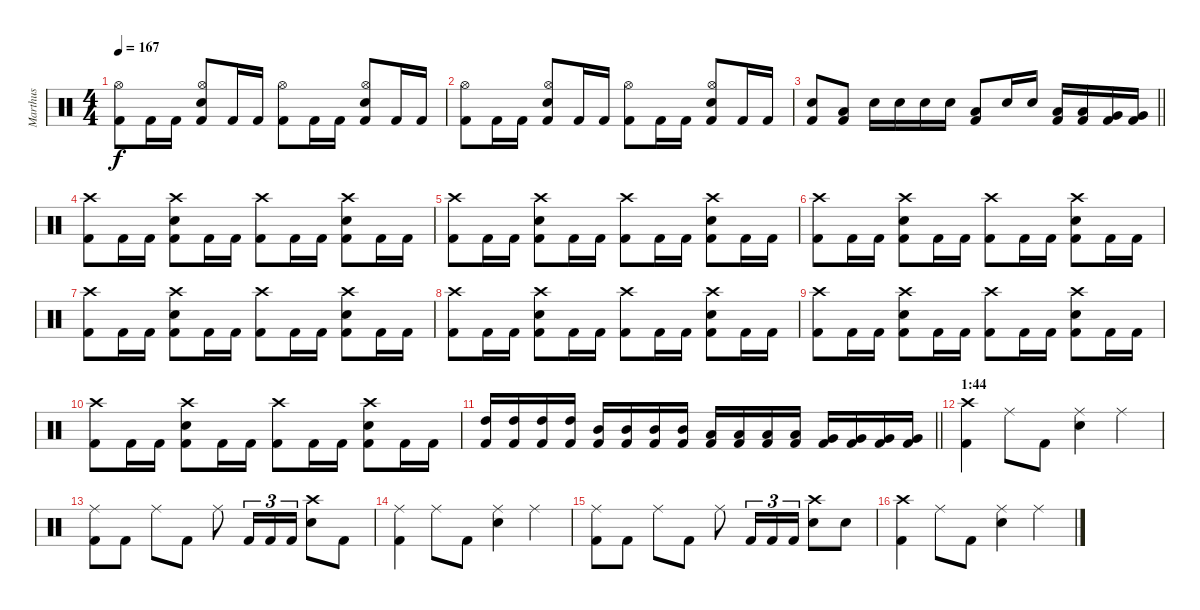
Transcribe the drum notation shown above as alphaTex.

\track ("Marthus" "Marthus") {instrument percussion}
\staff {score}
\articulation defaults
\ts (4 4)
\tempo 167
\clef neutral
\ks c
("Kick (hit) 2" "Hi-Hat (open)").8{dy f} "Kick (hit) 2".16 "Kick (hit) 2".16 ("Kick (hit) 2" "Snare (hit) 2" "Hi-Hat (open)").8 "Kick (hit) 2".16 "Kick (hit) 2".16 ("Kick (hit) 2" "Hi-Hat (open)").8 "Kick (hit) 2".16 "Kick (hit) 2".16 ("Kick (hit) 2" "Snare (hit) 2" "Hi-Hat (open)").8 "Kick (hit) 2".16 "Kick (hit) 2".16 |
("Kick (hit) 2" "Hi-Hat (open)").8 "Kick (hit) 2".16 "Kick (hit) 2".16 ("Kick (hit) 2" "Snare (hit) 2" "Hi-Hat (open)").8 "Kick (hit) 2".16 "Kick (hit) 2".16 ("Kick (hit) 2" "Hi-Hat (open)").8 "Kick (hit) 2".16 "Kick (hit) 2".16 ("Kick (hit) 2" "Snare (hit) 2" "Hi-Hat (open)").8 "Kick (hit) 2".16 "Kick (hit) 2".16 |
\barLineRight lightlight
("Kick (hit) 2" "Snare (hit) 2").8 ("Kick (hit) 2" "Low Tom (hit)").8 "Snare (hit) 2".16 "Snare (hit) 2".16 "Snare (hit) 2".16 "Snare (hit) 2".16 ("Kick (hit) 2" "Low Tom (hit)").8 "Snare (hit) 2".16 "Snare (hit) 2".16 ("Kick (hit) 2" "Low Tom (hit)").16 ("Kick (hit) 2" "Low Tom (hit)").16 ("Kick (hit) 2" "Very Low Tom (hit)").16 ("Kick (hit) 2" "Very Low Tom (hit)").16 |
("Kick (hit) 2" "Crash high (hit)").8 "Kick (hit) 2".16 "Kick (hit) 2".16 ("Kick (hit) 2" "Snare (hit) 2" "Crash high (hit)").8 "Kick (hit) 2".16 "Kick (hit) 2".16 ("Kick (hit) 2" "Crash high (hit)").8 "Kick (hit) 2".16 "Kick (hit) 2".16 ("Kick (hit) 2" "Snare (hit) 2" "Crash high (hit)").8 "Kick (hit) 2".16 "Kick (hit) 2".16 |
("Kick (hit) 2" "Crash high (hit)").8 "Kick (hit) 2".16 "Kick (hit) 2".16 ("Kick (hit) 2" "Snare (hit) 2" "Crash high (hit)").8 "Kick (hit) 2".16 "Kick (hit) 2".16 ("Kick (hit) 2" "Crash high (hit)").8 "Kick (hit) 2".16 "Kick (hit) 2".16 ("Kick (hit) 2" "Snare (hit) 2" "Crash high (hit)").8 "Kick (hit) 2".16 "Kick (hit) 2".16 |
("Kick (hit) 2" "Crash high (hit)").8 "Kick (hit) 2".16 "Kick (hit) 2".16 ("Kick (hit) 2" "Snare (hit) 2" "Crash high (hit)").8 "Kick (hit) 2".16 "Kick (hit) 2".16 ("Kick (hit) 2" "Crash high (hit)").8 "Kick (hit) 2".16 "Kick (hit) 2".16 ("Kick (hit) 2" "Snare (hit) 2" "Crash high (hit)").8 "Kick (hit) 2".16 "Kick (hit) 2".16 |
("Kick (hit) 2" "Crash high (hit)").8 "Kick (hit) 2".16 "Kick (hit) 2".16 ("Kick (hit) 2" "Snare (hit) 2" "Crash high (hit)").8 "Kick (hit) 2".16 "Kick (hit) 2".16 ("Kick (hit) 2" "Crash high (hit)").8 "Kick (hit) 2".16 "Kick (hit) 2".16 ("Kick (hit) 2" "Snare (hit) 2" "Crash high (hit)").8 "Kick (hit) 2".16 "Kick (hit) 2".16 |
("Kick (hit) 2" "Crash high (hit)").8 "Kick (hit) 2".16 "Kick (hit) 2".16 ("Kick (hit) 2" "Snare (hit) 2" "Crash high (hit)").8 "Kick (hit) 2".16 "Kick (hit) 2".16 ("Kick (hit) 2" "Crash high (hit)").8 "Kick (hit) 2".16 "Kick (hit) 2".16 ("Kick (hit) 2" "Snare (hit) 2" "Crash high (hit)").8 "Kick (hit) 2".16 "Kick (hit) 2".16 |
("Kick (hit) 2" "Crash high (hit)").8 "Kick (hit) 2".16 "Kick (hit) 2".16 ("Kick (hit) 2" "Snare (hit) 2" "Crash high (hit)").8 "Kick (hit) 2".16 "Kick (hit) 2".16 ("Kick (hit) 2" "Crash high (hit)").8 "Kick (hit) 2".16 "Kick (hit) 2".16 ("Kick (hit) 2" "Snare (hit) 2" "Crash high (hit)").8 "Kick (hit) 2".16 "Kick (hit) 2".16 |
("Kick (hit) 2" "Crash high (hit)").8 "Kick (hit) 2".16 "Kick (hit) 2".16 ("Kick (hit) 2" "Snare (hit) 2" "Crash high (hit)").8 "Kick (hit) 2".16 "Kick (hit) 2".16 ("Kick (hit) 2" "Crash high (hit)").8 "Kick (hit) 2".16 "Kick (hit) 2".16 ("Kick (hit) 2" "Snare (hit) 2" "Crash high (hit)").8 "Kick (hit) 2".16 "Kick (hit) 2".16 |
\barLineRight lightlight
("Kick (hit) 2" "High Tom (hit)").16 ("Kick (hit) 2" "High Tom (hit)").16 ("Kick (hit) 2" "High Tom (hit)").16 ("Kick (hit) 2" "High Tom (hit)").16 ("Kick (hit) 2" "Mid Tom (hit)").16 ("Kick (hit) 2" "Mid Tom (hit)").16 ("Kick (hit) 2" "Mid Tom (hit)").16 ("Kick (hit) 2" "Mid Tom (hit)").16 ("Kick (hit) 2" "Low Tom (hit)").16 ("Kick (hit) 2" "Low Tom (hit)").16 ("Kick (hit) 2" "Low Tom (hit)").16 ("Kick (hit) 2" "Low Tom (hit)").16 ("Kick (hit) 2" "Very Low Tom (hit)").16 ("Kick (hit) 2" "Very Low Tom (hit)").16 ("Kick (hit) 2" "Very Low Tom (hit)").16 ("Kick (hit) 2" "Very Low Tom (hit)").16 |
\section ("" "1:44")
("Kick (hit) 2" "Crash high (hit)").4 "Ride (middle)".8 "Kick (hit) 2".8 ("Snare (hit) 2" "Ride (middle)").4 "Ride (middle)".4 |
("Kick (hit) 2" "Ride (middle)").8 "Kick (hit) 2".8 "Ride (middle)".8 "Kick (hit) 2".8 "Ride (middle)".8 "Kick (hit) 2".16{tu (3 2)} "Kick (hit) 2".16{tu (3 2)} "Kick (hit) 2".16{tu (3 2)} ("Snare (hit) 2" "Crash high (hit)").8 "Kick (hit) 2".8 |
("Kick (hit) 2" "Ride (middle)").4 "Ride (middle)".8 "Kick (hit) 2".8 ("Snare (hit) 2" "Ride (middle)").4 "Ride (middle)".4 |
("Kick (hit) 2" "Ride (middle)").8 "Kick (hit) 2".8 "Ride (middle)".8 "Kick (hit) 2".8 "Ride (middle)".8 "Kick (hit) 2".16{tu (3 2)} "Kick (hit) 2".16{tu (3 2)} "Kick (hit) 2".16{tu (3 2)} ("Snare (hit) 2" "Crash high (hit)").8 "Snare (hit) 2".8 |
("Kick (hit) 2" "Crash high (hit)").4 "Ride (middle)".8 "Kick (hit) 2".8 ("Snare (hit) 2" "Ride (middle)").4 "Ride (middle)".4
